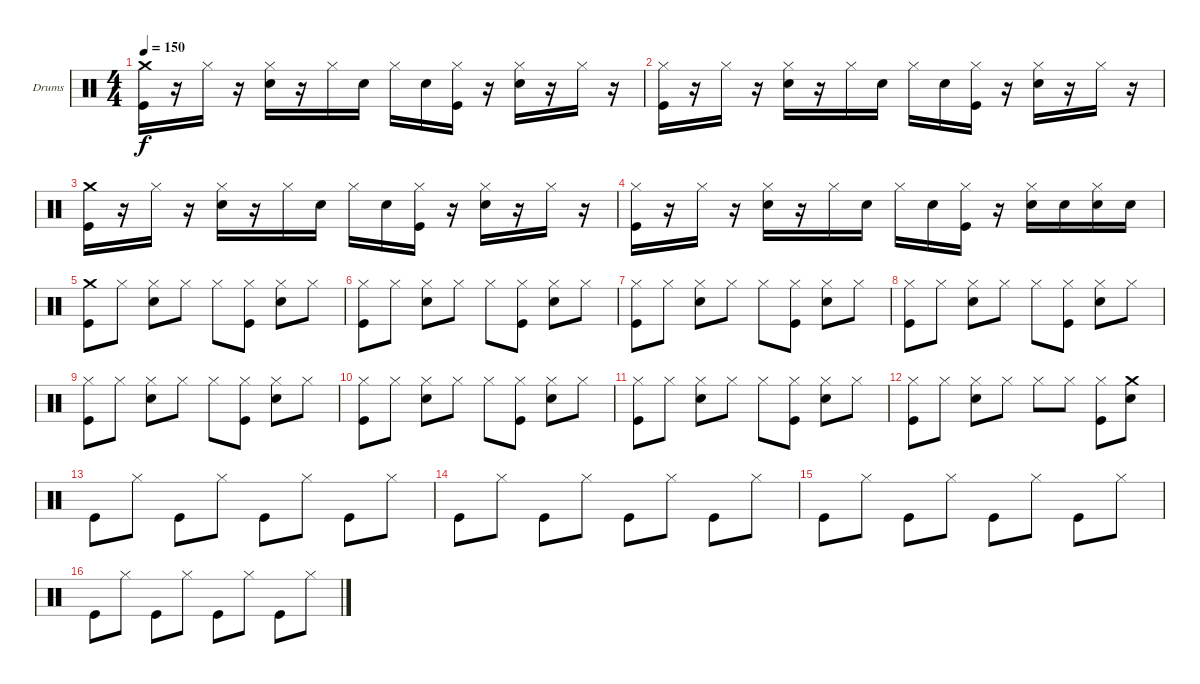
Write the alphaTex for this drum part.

\defaultSystemsLayout 4
\bracketExtendMode groupsimilarinstruments
\firstSystemTrackNameOrientation horizontal
\otherSystemsTrackNameOrientation horizontal
\track ("Drumkit" "Drums") {instrument percussion}
\staff {score}
\articulation defaults
\ts (4 4)
\tempo 150
\clef neutral
\ks c
("Kick (hit)" "Crash medium (hit)").16{dy f} r.16 "Hi-Hat (closed)".16 r.16 ("Snare (hit) 2" "Hi-Hat (closed)").16 r.16 "Hi-Hat (closed)".16 "Snare (hit) 2".16 "Hi-Hat (closed)".16 "Snare (hit) 2".16 ("Kick (hit)" "Hi-Hat (closed)").16 r.16 ("Snare (hit) 2" "Hi-Hat (closed)").16 r.16 "Hi-Hat (closed)".16 r.16 |
("Kick (hit)" "Hi-Hat (closed)").16 r.16 "Hi-Hat (closed)".16 r.16 ("Snare (hit) 2" "Hi-Hat (closed)").16 r.16 "Hi-Hat (closed)".16 "Snare (hit) 2".16 "Hi-Hat (closed)".16 "Snare (hit) 2".16 ("Kick (hit)" "Hi-Hat (closed)").16 r.16 ("Snare (hit) 2" "Hi-Hat (closed)").16 r.16 "Hi-Hat (closed)".16 r.16 |
("Kick (hit)" "Crash medium (hit)").16 r.16 "Hi-Hat (closed)".16 r.16 ("Snare (hit) 2" "Hi-Hat (closed)").16 r.16 "Hi-Hat (closed)".16 "Snare (hit) 2".16 "Hi-Hat (closed)".16 "Snare (hit) 2".16 ("Kick (hit)" "Hi-Hat (closed)").16 r.16 ("Snare (hit) 2" "Hi-Hat (closed)").16 r.16 "Hi-Hat (closed)".16 r.16 |
("Kick (hit)" "Hi-Hat (closed)").16 r.16 "Hi-Hat (closed)".16 r.16 ("Snare (hit) 2" "Hi-Hat (closed)").16 r.16 "Hi-Hat (closed)".16 "Snare (hit) 2".16 "Hi-Hat (closed)".16 "Snare (hit) 2".16 ("Kick (hit)" "Hi-Hat (closed)").16 r.16 ("Snare (hit) 2" "Hi-Hat (closed)").16 "Snare (hit) 2".16 ("Snare (hit) 2" "Hi-Hat (closed)").16 "Snare (hit) 2".16 |
("Kick (hit)" "Crash medium (hit)").8 "Hi-Hat (closed)".8 ("Snare (hit) 2" "Hi-Hat (closed)").8 "Hi-Hat (closed)".8 "Hi-Hat (closed)".8 ("Kick (hit)" "Hi-Hat (closed)").8 ("Snare (hit) 2" "Hi-Hat (closed)").8 "Hi-Hat (closed)".8 |
("Kick (hit)" "Hi-Hat (closed)").8 "Hi-Hat (closed)".8 ("Snare (hit) 2" "Hi-Hat (closed)").8 "Hi-Hat (closed)".8 "Hi-Hat (closed)".8 ("Kick (hit)" "Hi-Hat (closed)").8 ("Snare (hit) 2" "Hi-Hat (closed)").8 "Hi-Hat (closed)".8 |
("Kick (hit)" "Hi-Hat (closed)").8 "Hi-Hat (closed)".8 ("Snare (hit) 2" "Hi-Hat (closed)").8 "Hi-Hat (closed)".8 "Hi-Hat (closed)".8 ("Kick (hit)" "Hi-Hat (closed)").8 ("Snare (hit) 2" "Hi-Hat (closed)").8 "Hi-Hat (closed)".8 |
("Kick (hit)" "Hi-Hat (closed)").8 "Hi-Hat (closed)".8 ("Snare (hit) 2" "Hi-Hat (closed)").8 "Hi-Hat (closed)".8 "Hi-Hat (closed)".8 ("Kick (hit)" "Hi-Hat (closed)").8 ("Snare (hit) 2" "Hi-Hat (closed)").8 "Hi-Hat (closed)".8 |
("Kick (hit)" "Hi-Hat (closed)").8 "Hi-Hat (closed)".8 ("Snare (hit) 2" "Hi-Hat (closed)").8 "Hi-Hat (closed)".8 "Hi-Hat (closed)".8 ("Kick (hit)" "Hi-Hat (closed)").8 ("Snare (hit) 2" "Hi-Hat (closed)").8 "Hi-Hat (closed)".8 |
("Kick (hit)" "Hi-Hat (closed)").8 "Hi-Hat (closed)".8 ("Snare (hit) 2" "Hi-Hat (closed)").8 "Hi-Hat (closed)".8 "Hi-Hat (closed)".8 ("Kick (hit)" "Hi-Hat (closed)").8 ("Snare (hit) 2" "Hi-Hat (closed)").8 "Hi-Hat (closed)".8 |
("Kick (hit)" "Hi-Hat (closed)").8 "Hi-Hat (closed)".8 ("Snare (hit) 2" "Hi-Hat (closed)").8 "Hi-Hat (closed)".8 "Hi-Hat (closed)".8 ("Kick (hit)" "Hi-Hat (closed)").8 ("Snare (hit) 2" "Hi-Hat (closed)").8 "Hi-Hat (closed)".8 |
("Kick (hit)" "Hi-Hat (closed)").8 "Hi-Hat (closed)".8 ("Snare (hit) 2" "Hi-Hat (closed)").8 "Hi-Hat (closed)".8 "Hi-Hat (closed)".8 "Hi-Hat (closed)".8 ("Kick (hit)" "Hi-Hat (closed)").8 ("Snare (hit) 2" "Crash medium (hit)").8 |
"Kick (hit)".8 "Hi-Hat (closed)".8 "Kick (hit)".8 "Hi-Hat (closed)".8 "Kick (hit)".8 "Hi-Hat (closed)".8 "Kick (hit)".8 "Hi-Hat (closed)".8 |
"Kick (hit)".8 "Hi-Hat (closed)".8 "Kick (hit)".8 "Hi-Hat (closed)".8 "Kick (hit)".8 "Hi-Hat (closed)".8 "Kick (hit)".8 "Hi-Hat (closed)".8 |
"Kick (hit)".8 "Hi-Hat (closed)".8 "Kick (hit)".8 "Hi-Hat (closed)".8 "Kick (hit)".8 "Hi-Hat (closed)".8 "Kick (hit)".8 "Hi-Hat (closed)".8 |
"Kick (hit)".8 "Hi-Hat (closed)".8 "Kick (hit)".8 "Hi-Hat (closed)".8 "Kick (hit)".8 "Hi-Hat (closed)".8 "Kick (hit)".8 "Hi-Hat (closed)".8
